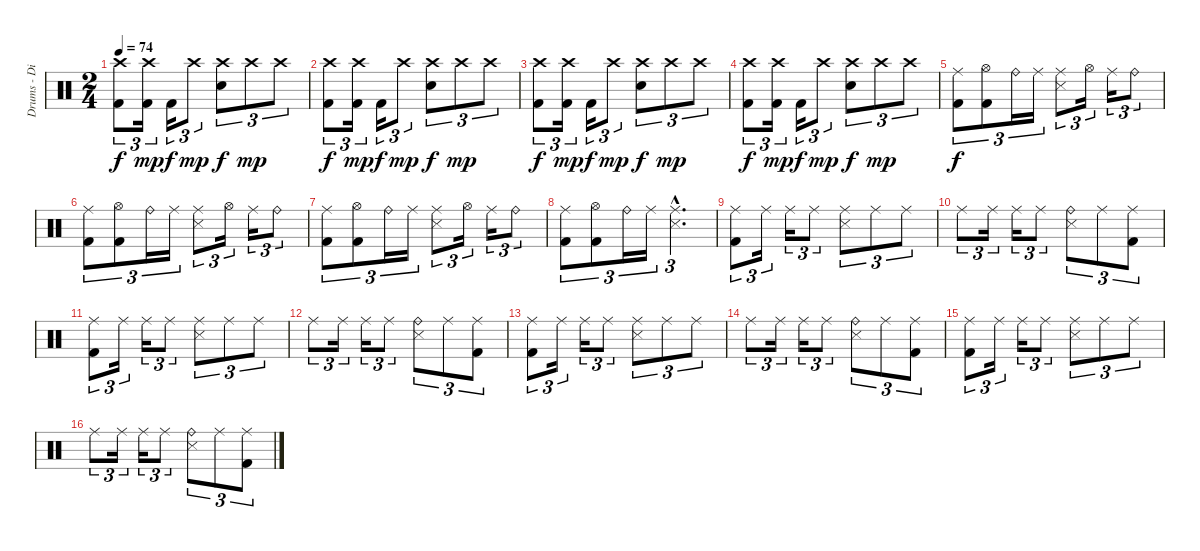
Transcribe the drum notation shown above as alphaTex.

\track ("Drums - Dino Campanella" "Drums - Di") {instrument percussion}
\staff {score}
\articulation defaults
\ts (2 4)
\tempo 74
\clef neutral
\ks c
("Crash high (hit)" "Kick (hit) 2").8{tu (3 2) dy f} ("Crash high (hit)" "Kick (hit) 2").16{tu (3 2) dy mp} "Kick (hit) 2".16{tu (3 2) dy f} "Crash high (hit)".8{tu (3 2) dy mp} ("Crash high (hit)" "Snare (hit) 2").8{tu (3 2) dy f} "Crash high (hit)".8{tu (3 2) dy mp} "Crash high (hit)".8{tu (3 2)} |
("Crash high (hit)" "Kick (hit) 2").8{tu (3 2) dy f} ("Crash high (hit)" "Kick (hit) 2").16{tu (3 2) dy mp} "Kick (hit) 2".16{tu (3 2) dy f} "Crash high (hit)".8{tu (3 2) dy mp} ("Crash high (hit)" "Snare (hit) 2").8{tu (3 2) dy f} "Crash high (hit)".8{tu (3 2) dy mp} "Crash high (hit)".8{tu (3 2)} |
("Crash high (hit)" "Kick (hit) 2").8{tu (3 2) dy f} ("Crash high (hit)" "Kick (hit) 2").16{tu (3 2) dy mp} "Kick (hit) 2".16{tu (3 2) dy f} "Crash high (hit)".8{tu (3 2) dy mp} ("Crash high (hit)" "Snare (hit) 2").8{tu (3 2) dy f} "Crash high (hit)".8{tu (3 2) dy mp} "Crash high (hit)".8{tu (3 2)} |
("Crash high (hit)" "Kick (hit) 2").8{tu (3 2) dy f} ("Crash high (hit)" "Kick (hit) 2").16{tu (3 2) dy mp} "Kick (hit) 2".16{tu (3 2) dy f} "Crash high (hit)".8{tu (3 2) dy mp} ("Crash high (hit)" "Snare (hit) 2").8{tu (3 2) dy f} "Crash high (hit)".8{tu (3 2) dy mp} "Crash high (hit)".8{tu (3 2)} |
("Ride (middle)" "Kick (hit) 2").8{tu (3 2) dy f} ("Hi-Hat (open)" "Kick (hit) 2").8{tu (3 2)} "Ride (bell)".16{tu (3 2)} "Ride (middle)".16{tu (3 2)} ("Ride (middle)" "Snare (side stick) 3").8{tu (3 2)} "Hi-Hat (open)".16{tu (3 2)} "Ride (middle)".16{tu (3 2)} "Ride (bell)".8{tu (3 2)} |
("Ride (middle)" "Kick (hit) 2").8{tu (3 2)} ("Hi-Hat (open)" "Kick (hit) 2").8{tu (3 2)} "Ride (bell)".16{tu (3 2)} "Ride (middle)".16{tu (3 2)} ("Ride (middle)" "Snare (side stick) 3").8{tu (3 2)} "Hi-Hat (open)".16{tu (3 2)} "Ride (middle)".16{tu (3 2)} "Ride (bell)".8{tu (3 2)} |
("Ride (middle)" "Kick (hit) 2").8{tu (3 2)} ("Hi-Hat (open)" "Kick (hit) 2").8{tu (3 2)} "Ride (bell)".16{tu (3 2)} "Ride (middle)".16{tu (3 2)} ("Ride (middle)" "Snare (side stick) 3").8{tu (3 2)} "Hi-Hat (open)".16{tu (3 2)} "Ride (middle)".16{tu (3 2)} "Ride (bell)".8{tu (3 2)} |
("Ride (middle)" "Kick (hit) 2").8{tu (3 2)} ("Hi-Hat (open)" "Kick (hit) 2").8{tu (3 2)} "Ride (bell)".16{tu (3 2)} "Ride (middle)".16{tu (3 2)} ("Ride (middle)"{hac} "Snare (side stick) 3"{hac}).4{d tu (3 2)} |
("Ride (middle)" "Kick (hit) 2").8{tu (3 2)} "Ride (middle)".16{tu (3 2)} "Ride (middle)".16{tu (3 2)} "Ride (middle)".8{tu (3 2)} ("Ride (middle)" "Snare (side stick) 3").8{tu (3 2)} "Ride (middle)".8{tu (3 2)} "Ride (middle)".8{tu (3 2)} |
"Ride (middle)".8{tu (3 2)} "Ride (middle)".16{tu (3 2)} "Ride (middle)".16{tu (3 2)} "Ride (middle)".8{tu (3 2)} ("Ride (bell)" "Snare (side stick) 3").8{tu (3 2)} "Ride (middle)".8{tu (3 2)} ("Ride (middle)" "Kick (hit) 2").8{tu (3 2)} |
("Ride (middle)" "Kick (hit) 2").8{tu (3 2)} "Ride (middle)".16{tu (3 2)} "Ride (middle)".16{tu (3 2)} "Ride (middle)".8{tu (3 2)} ("Ride (middle)" "Snare (side stick) 3").8{tu (3 2)} "Ride (middle)".8{tu (3 2)} "Ride (middle)".8{tu (3 2)} |
"Ride (middle)".8{tu (3 2)} "Ride (middle)".16{tu (3 2)} "Ride (middle)".16{tu (3 2)} "Ride (middle)".8{tu (3 2)} ("Ride (bell)" "Snare (side stick) 3").8{tu (3 2)} "Ride (middle)".8{tu (3 2)} ("Ride (middle)" "Kick (hit) 2").8{tu (3 2)} |
("Ride (middle)" "Kick (hit) 2").8{tu (3 2)} "Ride (middle)".16{tu (3 2)} "Ride (middle)".16{tu (3 2)} "Ride (middle)".8{tu (3 2)} ("Ride (middle)" "Snare (side stick) 3").8{tu (3 2)} "Ride (middle)".8{tu (3 2)} "Ride (middle)".8{tu (3 2)} |
"Ride (middle)".8{tu (3 2)} "Ride (middle)".16{tu (3 2)} "Ride (middle)".16{tu (3 2)} "Ride (middle)".8{tu (3 2)} ("Ride (bell)" "Snare (side stick) 3").8{tu (3 2)} "Ride (middle)".8{tu (3 2)} ("Ride (middle)" "Kick (hit) 2").8{tu (3 2)} |
("Ride (middle)" "Kick (hit) 2").8{tu (3 2)} "Ride (middle)".16{tu (3 2)} "Ride (middle)".16{tu (3 2)} "Ride (middle)".8{tu (3 2)} ("Ride (middle)" "Snare (side stick) 3").8{tu (3 2)} "Ride (middle)".8{tu (3 2)} "Ride (middle)".8{tu (3 2)} |
"Ride (middle)".8{tu (3 2)} "Ride (middle)".16{tu (3 2)} "Ride (middle)".16{tu (3 2)} "Ride (middle)".8{tu (3 2)} ("Ride (bell)" "Snare (side stick) 3").8{tu (3 2)} "Ride (middle)".8{tu (3 2)} ("Ride (middle)" "Kick (hit) 2").8{tu (3 2)}
